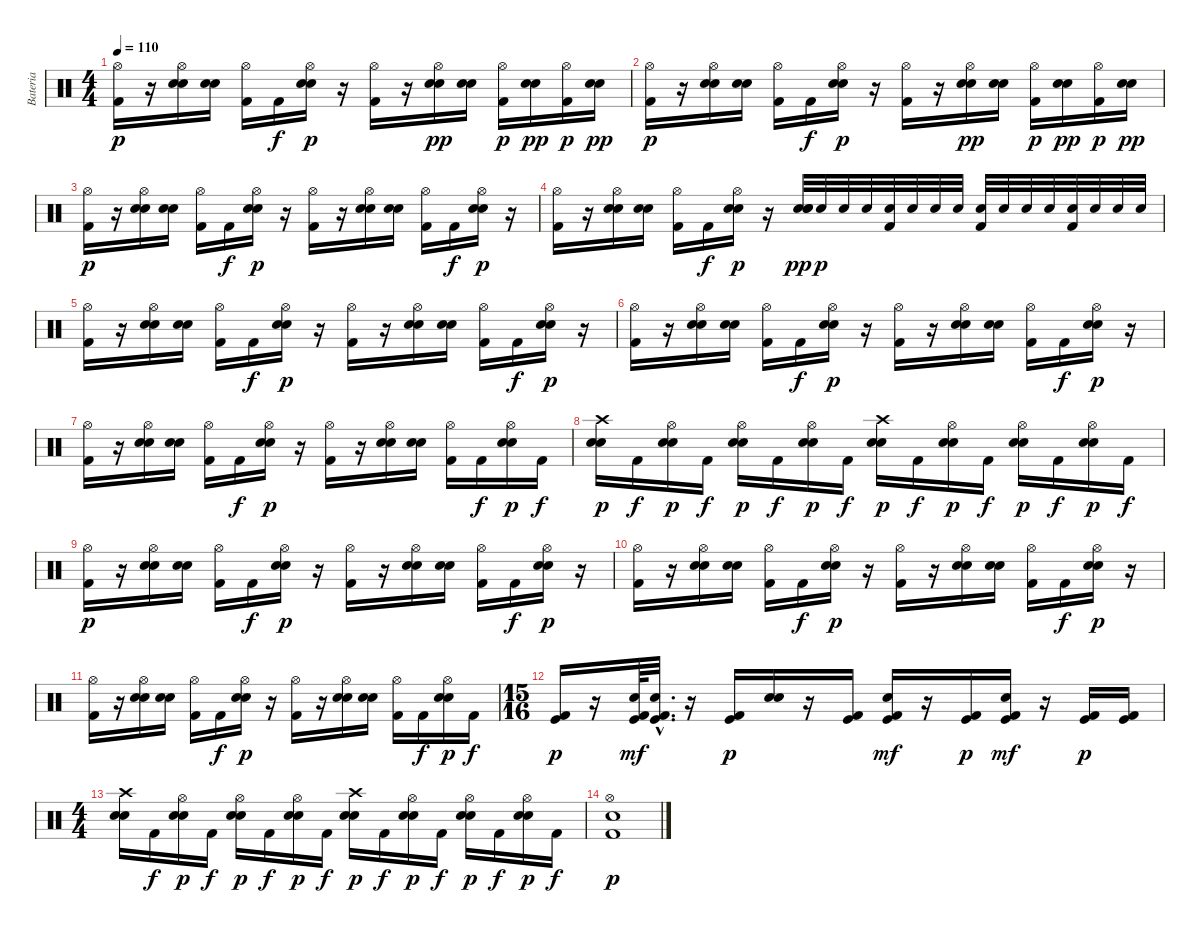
\track ("Bateria" "Bateria") {instrument percussion}
\staff {score}
\articulation defaults
\ts (4 4)
\tempo 110
\clef neutral
\ks c
("Hi-Hat (open)" "Kick (hit) 2").16{dy p} r.16 ("Hi-Hat (open)" "Electric Snare (hit)" "Snare (hit) 2").16 ("Electric Snare (hit)" "Snare (hit) 2").16 ("Hi-Hat (open)" "Kick (hit) 2").16 "Kick (hit) 2".16{dy f} ("Hi-Hat (open)" "Electric Snare (hit)" "Snare (hit) 2").16{dy p} r.16 ("Hi-Hat (open)" "Kick (hit) 2").16 r.16 ("Hi-Hat (open)" "Electric Snare (hit)" "Snare (hit) 2").16{dy pp} ("Electric Snare (hit)" "Snare (hit) 2").16 ("Hi-Hat (open)" "Kick (hit) 2").16{dy p} ("Electric Snare (hit)" "Snare (hit) 2").16{dy pp} ("Hi-Hat (open)" "Kick (hit) 2").16{dy p} ("Electric Snare (hit)" "Snare (hit) 2").16{dy pp} |
("Hi-Hat (open)" "Kick (hit) 2").16{dy p} r.16 ("Hi-Hat (open)" "Electric Snare (hit)" "Snare (hit) 2").16 ("Electric Snare (hit)" "Snare (hit) 2").16 ("Hi-Hat (open)" "Kick (hit) 2").16 "Kick (hit) 2".16{dy f} ("Hi-Hat (open)" "Electric Snare (hit)" "Snare (hit) 2").16{dy p} r.16 ("Hi-Hat (open)" "Kick (hit) 2").16 r.16 ("Hi-Hat (open)" "Electric Snare (hit)" "Snare (hit) 2").16{dy pp} ("Electric Snare (hit)" "Snare (hit) 2").16 ("Hi-Hat (open)" "Kick (hit) 2").16{dy p} ("Electric Snare (hit)" "Snare (hit) 2").16{dy pp} ("Hi-Hat (open)" "Kick (hit) 2").16{dy p} ("Electric Snare (hit)" "Snare (hit) 2").16{dy pp} |
("Hi-Hat (open)" "Kick (hit) 2").16{dy p} r.16 ("Hi-Hat (open)" "Electric Snare (hit)" "Snare (hit) 2").16 ("Electric Snare (hit)" "Snare (hit) 2").16 ("Hi-Hat (open)" "Kick (hit) 2").16 "Kick (hit) 2".16{dy f} ("Hi-Hat (open)" "Electric Snare (hit)" "Snare (hit) 2").16{dy p} r.16 ("Hi-Hat (open)" "Kick (hit) 2").16 r.16 ("Hi-Hat (open)" "Electric Snare (hit)" "Snare (hit) 2").16 ("Electric Snare (hit)" "Snare (hit) 2").16 ("Hi-Hat (open)" "Kick (hit) 2").16 "Kick (hit) 2".16{dy f} ("Hi-Hat (open)" "Electric Snare (hit)" "Snare (hit) 2").16{dy p} r.16 |
("Hi-Hat (open)" "Kick (hit) 2").16 r.16 ("Hi-Hat (open)" "Electric Snare (hit)" "Snare (hit) 2").16 ("Electric Snare (hit)" "Snare (hit) 2").16 ("Hi-Hat (open)" "Kick (hit) 2").16 "Kick (hit) 2".16{dy f} ("Hi-Hat (open)" "Electric Snare (hit)" "Snare (hit) 2").16{dy p} r.16 ("Electric Snare (hit)" "Electric Snare (hit)" "Snare (hit) 2").32{dy pp} "Electric Snare (hit)".32{dy p} "Electric Snare (hit)".32 "Electric Snare (hit)".32 ("Kick (hit) 2" "Electric Snare (hit)").32 "Electric Snare (hit)".32 "Electric Snare (hit)".32 "Electric Snare (hit)".32 ("Kick (hit) 2" "Electric Snare (hit)").32 "Electric Snare (hit)".32 "Electric Snare (hit)".32 "Electric Snare (hit)".32 ("Kick (hit) 2" "Electric Snare (hit)").32 "Electric Snare (hit)".32 "Electric Snare (hit)".32 "Electric Snare (hit)".32 |
("Hi-Hat (open)" "Kick (hit) 2").16 r.16 ("Hi-Hat (open)" "Electric Snare (hit)" "Snare (hit) 2").16 ("Electric Snare (hit)" "Snare (hit) 2").16 ("Hi-Hat (open)" "Kick (hit) 2").16 "Kick (hit) 2".16{dy f} ("Hi-Hat (open)" "Electric Snare (hit)" "Snare (hit) 2").16{dy p} r.16 ("Hi-Hat (open)" "Kick (hit) 2").16 r.16 ("Hi-Hat (open)" "Electric Snare (hit)" "Snare (hit) 2").16 ("Electric Snare (hit)" "Snare (hit) 2").16 ("Hi-Hat (open)" "Kick (hit) 2").16 "Kick (hit) 2".16{dy f} ("Hi-Hat (open)" "Electric Snare (hit)" "Snare (hit) 2").16{dy p} r.16 |
("Hi-Hat (open)" "Kick (hit) 2").16 r.16 ("Hi-Hat (open)" "Electric Snare (hit)" "Snare (hit) 2").16 ("Electric Snare (hit)" "Snare (hit) 2").16 ("Hi-Hat (open)" "Kick (hit) 2").16 "Kick (hit) 2".16{dy f} ("Hi-Hat (open)" "Electric Snare (hit)" "Snare (hit) 2").16{dy p} r.16 ("Hi-Hat (open)" "Kick (hit) 2").16 r.16 ("Hi-Hat (open)" "Electric Snare (hit)" "Snare (hit) 2").16 ("Electric Snare (hit)" "Snare (hit) 2").16 ("Hi-Hat (open)" "Kick (hit) 2").16 "Kick (hit) 2".16{dy f} ("Hi-Hat (open)" "Electric Snare (hit)" "Snare (hit) 2").16{dy p} r.16 |
("Hi-Hat (open)" "Kick (hit) 2").16 r.16 ("Hi-Hat (open)" "Electric Snare (hit)" "Snare (hit) 2").16 ("Electric Snare (hit)" "Snare (hit) 2").16 ("Hi-Hat (open)" "Kick (hit) 2").16 "Kick (hit) 2".16{dy f} ("Hi-Hat (open)" "Electric Snare (hit)" "Snare (hit) 2").16{dy p} r.16 ("Hi-Hat (open)" "Kick (hit) 2").16 r.16 ("Hi-Hat (open)" "Electric Snare (hit)" "Snare (hit) 2").16 ("Electric Snare (hit)" "Snare (hit) 2").16 ("Hi-Hat (open)" "Kick (hit) 2").16 "Kick (hit) 2".16{dy f} ("Hi-Hat (open)" "Electric Snare (hit)" "Snare (hit) 2").16{dy p} "Kick (hit) 2".16{dy f} |
("Electric Snare (hit)" "Snare (hit) 2" "Crash high (hit)").16{dy p} "Kick (hit) 2".16{dy f} ("Electric Snare (hit)" "Snare (hit) 2" "Hi-Hat (open)").16{dy p} "Kick (hit) 2".16{dy f} ("Electric Snare (hit)" "Snare (hit) 2" "Hi-Hat (open)").16{dy p} "Kick (hit) 2".16{dy f} ("Electric Snare (hit)" "Snare (hit) 2" "Hi-Hat (open)").16{dy p} "Kick (hit) 2".16{dy f} ("Electric Snare (hit)" "Snare (hit) 2" "Crash high (hit)").16{dy p} "Kick (hit) 2".16{dy f} ("Electric Snare (hit)" "Snare (hit) 2" "Hi-Hat (open)").16{dy p} "Kick (hit) 2".16{dy f} ("Electric Snare (hit)" "Snare (hit) 2" "Hi-Hat (open)").16{dy p} "Kick (hit) 2".16{dy f} ("Electric Snare (hit)" "Snare (hit) 2" "Hi-Hat (open)").16{dy p} "Kick (hit) 2".16{dy f} |
("Hi-Hat (open)" "Kick (hit) 2").16{dy p} r.16 ("Hi-Hat (open)" "Electric Snare (hit)" "Snare (hit) 2").16 ("Electric Snare (hit)" "Snare (hit) 2").16 ("Hi-Hat (open)" "Kick (hit) 2").16 "Kick (hit) 2".16{dy f} ("Hi-Hat (open)" "Electric Snare (hit)" "Snare (hit) 2").16{dy p} r.16 ("Hi-Hat (open)" "Kick (hit) 2").16 r.16 ("Hi-Hat (open)" "Electric Snare (hit)" "Snare (hit) 2").16 ("Electric Snare (hit)" "Snare (hit) 2").16 ("Hi-Hat (open)" "Kick (hit) 2").16 "Kick (hit) 2".16{dy f} ("Hi-Hat (open)" "Electric Snare (hit)" "Snare (hit) 2").16{dy p} r.16 |
("Hi-Hat (open)" "Kick (hit) 2").16 r.16 ("Hi-Hat (open)" "Electric Snare (hit)" "Snare (hit) 2").16 ("Electric Snare (hit)" "Snare (hit) 2").16 ("Hi-Hat (open)" "Kick (hit) 2").16 "Kick (hit) 2".16{dy f} ("Hi-Hat (open)" "Electric Snare (hit)" "Snare (hit) 2").16{dy p} r.16 ("Hi-Hat (open)" "Kick (hit) 2").16 r.16 ("Hi-Hat (open)" "Electric Snare (hit)" "Snare (hit) 2").16 ("Electric Snare (hit)" "Snare (hit) 2").16 ("Hi-Hat (open)" "Kick (hit) 2").16 "Kick (hit) 2".16{dy f} ("Hi-Hat (open)" "Electric Snare (hit)" "Snare (hit) 2").16{dy p} r.16 |
("Hi-Hat (open)" "Kick (hit) 2").16 r.16 ("Hi-Hat (open)" "Electric Snare (hit)" "Snare (hit) 2").16 ("Electric Snare (hit)" "Snare (hit) 2").16 ("Hi-Hat (open)" "Kick (hit) 2").16 "Kick (hit) 2".16{dy f} ("Hi-Hat (open)" "Electric Snare (hit)" "Snare (hit) 2").16{dy p} r.16 ("Hi-Hat (open)" "Kick (hit) 2").16 r.16 ("Hi-Hat (open)" "Electric Snare (hit)" "Snare (hit) 2").16 ("Electric Snare (hit)" "Snare (hit) 2").16 ("Hi-Hat (open)" "Kick (hit) 2").16 "Kick (hit) 2".16{dy f} ("Hi-Hat (open)" "Electric Snare (hit)" "Snare (hit) 2").16{dy p} "Kick (hit) 2".16{dy f} |
\ts (15 16)
("Kick (hit) 2" "Kick (hit)").16{dy p} r.16 ("Kick (hit) 2" "Kick (hit)" "Electric Snare (hit)").64{dy mf} ("Kick (hit) 2"{hac} "Kick (hit)"{hac} "Electric Snare (hit)"{hac}).32{d} r.16 ("Kick (hit)" "Kick (hit) 2").16{dy p} ("Snare (hit) 2" "Electric Snare (hit)").16 r.16 ("Kick (hit) 2" "Kick (hit)").16 ("Kick (hit) 2" "Kick (hit)" "Electric Snare (hit)").16{dy mf} r.16 ("Kick (hit) 2" "Kick (hit)").16{dy p} ("Kick (hit) 2" "Kick (hit)" "Electric Snare (hit)").16{dy mf} r.16 ("Kick (hit) 2" "Kick (hit)").16{dy p} ("Kick (hit) 2" "Kick (hit)").16 |
\ts (4 4)
("Electric Snare (hit)" "Snare (hit) 2" "Crash high (hit)").16 "Kick (hit) 2".16{dy f} ("Electric Snare (hit)" "Snare (hit) 2" "Hi-Hat (open)").16{dy p} "Kick (hit) 2".16{dy f} ("Electric Snare (hit)" "Snare (hit) 2" "Hi-Hat (open)").16{dy p} "Kick (hit) 2".16{dy f} ("Electric Snare (hit)" "Snare (hit) 2" "Hi-Hat (open)").16{dy p} "Kick (hit) 2".16{dy f} ("Electric Snare (hit)" "Snare (hit) 2" "Crash high (hit)").16{dy p} "Kick (hit) 2".16{dy f} ("Electric Snare (hit)" "Snare (hit) 2" "Hi-Hat (open)").16{dy p} "Kick (hit) 2".16{dy f} ("Electric Snare (hit)" "Snare (hit) 2" "Hi-Hat (open)").16{dy p} "Kick (hit) 2".16{dy f} ("Electric Snare (hit)" "Snare (hit) 2" "Hi-Hat (open)").16{dy p} "Kick (hit) 2".16{dy f} |
("Kick (hit) 2" "Electric Snare (hit)" "Hi-Hat (open)").1{dy p}
